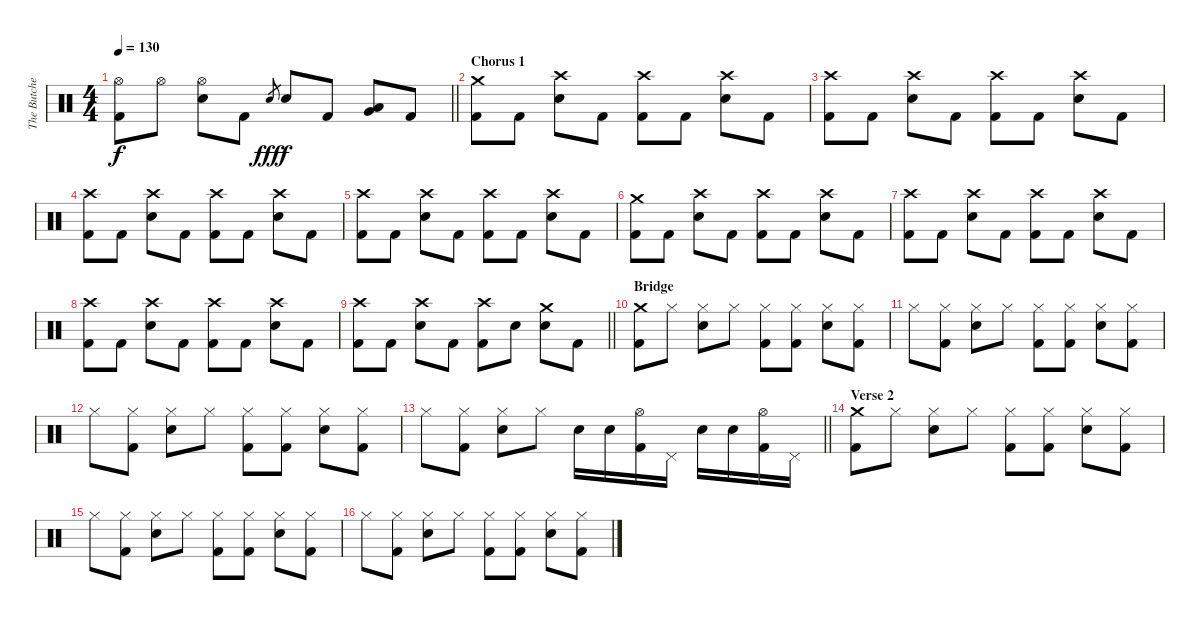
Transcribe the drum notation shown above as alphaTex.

\track ("The Butcher (Drums)" "The Butche") {instrument percussion}
\staff {score}
\articulation defaults
\ts (4 4)
\tempo 130
\clef neutral
\barLineRight lightlight
\ks c
("Hi-Hat (open)" "Kick (hit) 2").8{dy f} "Hi-Hat (open)".8 ("Hi-Hat (open)" "Electric Snare (hit)").8 "Kick (hit) 2".8 "Electric Snare (hit)".8{gr dy fff} "Electric Snare (hit)".8{dy f} "Kick (hit) 2".8 ("Low Tom (hit)" "Very Low Tom (hit)").8 "Kick (hit) 2".8 |
\section ("" "Chorus 1")
("Crash medium (hit)" "Kick (hit) 2").8 "Kick (hit) 2".8 ("Crash high (hit)" "Electric Snare (hit)").8 "Kick (hit) 2".8 ("Crash high (hit)" "Kick (hit) 2").8 "Kick (hit) 2".8 ("Crash high (hit)" "Electric Snare (hit)").8 "Kick (hit) 2".8 |
("Crash high (hit)" "Kick (hit) 2").8 "Kick (hit) 2".8 ("Crash high (hit)" "Electric Snare (hit)").8 "Kick (hit) 2".8 ("Crash high (hit)" "Kick (hit) 2").8 "Kick (hit) 2".8 ("Crash high (hit)" "Electric Snare (hit)").8 "Kick (hit) 2".8 |
("Crash high (hit)" "Kick (hit) 2").8 "Kick (hit) 2".8 ("Crash high (hit)" "Electric Snare (hit)").8 "Kick (hit) 2".8 ("Crash high (hit)" "Kick (hit) 2").8 "Kick (hit) 2".8 ("Crash high (hit)" "Electric Snare (hit)").8 "Kick (hit) 2".8 |
("Crash high (hit)" "Kick (hit) 2").8 "Kick (hit) 2".8 ("Crash high (hit)" "Electric Snare (hit)").8 "Kick (hit) 2".8 ("Crash high (hit)" "Kick (hit) 2").8 "Kick (hit) 2".8 ("Crash high (hit)" "Electric Snare (hit)").8 "Kick (hit) 2".8 |
("Crash medium (hit)" "Kick (hit) 2").8 "Kick (hit) 2".8 ("Crash high (hit)" "Electric Snare (hit)").8 "Kick (hit) 2".8 ("Crash high (hit)" "Kick (hit) 2").8 "Kick (hit) 2".8 ("Crash high (hit)" "Electric Snare (hit)").8 "Kick (hit) 2".8 |
("Crash high (hit)" "Kick (hit) 2").8 "Kick (hit) 2".8 ("Crash high (hit)" "Electric Snare (hit)").8 "Kick (hit) 2".8 ("Crash high (hit)" "Kick (hit) 2").8 "Kick (hit) 2".8 ("Crash high (hit)" "Electric Snare (hit)").8 "Kick (hit) 2".8 |
("Crash high (hit)" "Kick (hit) 2").8 "Kick (hit) 2".8 ("Crash high (hit)" "Electric Snare (hit)").8 "Kick (hit) 2".8 ("Crash high (hit)" "Kick (hit) 2").8 "Kick (hit) 2".8 ("Crash high (hit)" "Electric Snare (hit)").8 "Kick (hit) 2".8 |
\barLineRight lightlight
("Crash high (hit)" "Kick (hit) 2").8 "Kick (hit) 2".8 ("Crash high (hit)" "Electric Snare (hit)").8 "Kick (hit) 2".8 ("Crash high (hit)" "Kick (hit) 2").8 "Electric Snare (hit)".8 ("Crash medium (hit)" "Electric Snare (hit)").8 "Kick (hit) 2".8 |
\section ("" "Bridge")
("Crash medium (hit)" "Kick (hit) 2").8 "Hi-Hat (closed)".8 ("Hi-Hat (closed)" "Electric Snare (hit)").8 "Hi-Hat (closed)".8 ("Hi-Hat (closed)" "Kick (hit) 2").8 ("Hi-Hat (closed)" "Kick (hit) 2").8 ("Hi-Hat (closed)" "Electric Snare (hit)").8 ("Hi-Hat (closed)" "Kick (hit) 2").8 |
"Hi-Hat (closed)".8 ("Hi-Hat (closed)" "Kick (hit) 2").8 ("Hi-Hat (closed)" "Electric Snare (hit)").8 "Hi-Hat (closed)".8 ("Hi-Hat (closed)" "Kick (hit) 2").8 ("Hi-Hat (closed)" "Kick (hit) 2").8 ("Hi-Hat (closed)" "Electric Snare (hit)").8 ("Hi-Hat (closed)" "Kick (hit) 2").8 |
"Hi-Hat (closed)".8 ("Hi-Hat (closed)" "Kick (hit) 2").8 ("Hi-Hat (closed)" "Electric Snare (hit)").8 "Hi-Hat (closed)".8 ("Hi-Hat (closed)" "Kick (hit) 2").8 ("Hi-Hat (closed)" "Kick (hit) 2").8 ("Hi-Hat (closed)" "Electric Snare (hit)").8 ("Hi-Hat (closed)" "Kick (hit) 2").8 |
\barLineRight lightlight "Hi-Hat (closed)".8
("Hi-Hat (closed)" "Kick (hit) 2").8 ("Hi-Hat (closed)" "Electric Snare (hit)").8 "Hi-Hat (closed)".8 "Electric Snare (hit)".16 "Electric Snare (hit)".16 ("Hi-Hat (open)" "Kick (hit) 2").16 "Pedal Hi-Hat (hit)".16 "Electric Snare (hit)".16 "Electric Snare (hit)".16 ("Hi-Hat (open)" "Kick (hit) 2").16 "Pedal Hi-Hat (hit)".16 |
\section ("" "Verse 2")
("Crash medium (hit)" "Kick (hit) 2").8 "Hi-Hat (closed)".8 ("Hi-Hat (closed)" "Electric Snare (hit)").8 "Hi-Hat (closed)".8 ("Hi-Hat (closed)" "Kick (hit) 2").8 ("Hi-Hat (closed)" "Kick (hit) 2").8 ("Hi-Hat (closed)" "Electric Snare (hit)").8 ("Hi-Hat (closed)" "Kick (hit) 2").8 |
"Hi-Hat (closed)".8 ("Hi-Hat (closed)" "Kick (hit) 2").8 ("Hi-Hat (closed)" "Electric Snare (hit)").8 "Hi-Hat (closed)".8 ("Hi-Hat (closed)" "Kick (hit) 2").8 ("Hi-Hat (closed)" "Kick (hit) 2").8 ("Hi-Hat (closed)" "Electric Snare (hit)").8 ("Hi-Hat (closed)" "Kick (hit) 2").8 |
"Hi-Hat (closed)".8 ("Hi-Hat (closed)" "Kick (hit) 2").8 ("Hi-Hat (closed)" "Electric Snare (hit)").8 "Hi-Hat (closed)".8 ("Hi-Hat (closed)" "Kick (hit) 2").8 ("Hi-Hat (closed)" "Kick (hit) 2").8 ("Hi-Hat (closed)" "Electric Snare (hit)").8 ("Hi-Hat (closed)" "Kick (hit) 2").8
